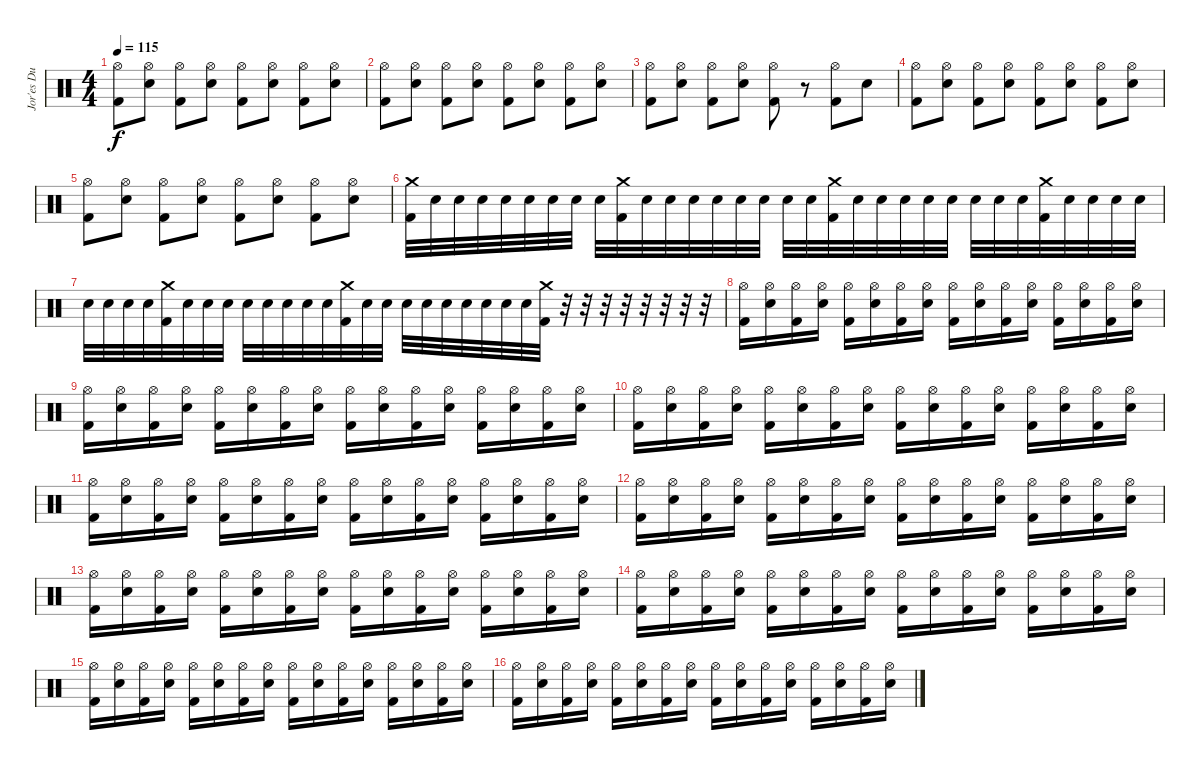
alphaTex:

\track ("Jor'es Du True" "Jor'es Du ") {instrument percussion}
\staff {score}
\articulation defaults
\ts (4 4)
\tempo 115
\clef neutral
\ks c
("Hi-Hat (open)" "Kick (hit) 2").8{dy f} ("Hi-Hat (open)" "Electric Snare (hit)").8 ("Hi-Hat (open)" "Kick (hit) 2").8 ("Hi-Hat (open)" "Electric Snare (hit)").8 ("Hi-Hat (open)" "Kick (hit) 2").8 ("Hi-Hat (open)" "Electric Snare (hit)").8 ("Hi-Hat (open)" "Kick (hit) 2").8 ("Hi-Hat (open)" "Electric Snare (hit)").8 |
("Hi-Hat (open)" "Kick (hit) 2").8 ("Hi-Hat (open)" "Electric Snare (hit)").8 ("Hi-Hat (open)" "Kick (hit) 2").8 ("Hi-Hat (open)" "Electric Snare (hit)").8 ("Hi-Hat (open)" "Kick (hit) 2").8 ("Hi-Hat (open)" "Electric Snare (hit)").8 ("Hi-Hat (open)" "Kick (hit) 2").8 ("Hi-Hat (open)" "Electric Snare (hit)").8 |
("Hi-Hat (open)" "Kick (hit) 2").8 ("Hi-Hat (open)" "Electric Snare (hit)").8 ("Hi-Hat (open)" "Kick (hit) 2").8 ("Hi-Hat (open)" "Electric Snare (hit)").8 ("Hi-Hat (open)" "Kick (hit) 2").8 r.8 ("Hi-Hat (open)" "Kick (hit) 2").8 "Electric Snare (hit)".8 |
("Hi-Hat (open)" "Kick (hit) 2").8 ("Hi-Hat (open)" "Electric Snare (hit)").8 ("Hi-Hat (open)" "Kick (hit) 2").8 ("Hi-Hat (open)" "Electric Snare (hit)").8 ("Hi-Hat (open)" "Kick (hit) 2").8 ("Hi-Hat (open)" "Electric Snare (hit)").8 ("Hi-Hat (open)" "Kick (hit) 2").8 ("Hi-Hat (open)" "Electric Snare (hit)").8 |
("Hi-Hat (open)" "Kick (hit) 2").8 ("Hi-Hat (open)" "Electric Snare (hit)").8 ("Hi-Hat (open)" "Kick (hit) 2").8 ("Hi-Hat (open)" "Electric Snare (hit)").8 ("Hi-Hat (open)" "Kick (hit) 2").8 ("Hi-Hat (open)" "Electric Snare (hit)").8 ("Hi-Hat (open)" "Kick (hit) 2").8 ("Hi-Hat (open)" "Electric Snare (hit)").8 |
("Crash medium (hit)" "Kick (hit) 2").32 "Electric Snare (hit)".32 "Electric Snare (hit)".32 "Electric Snare (hit)".32 "Electric Snare (hit)".32 "Electric Snare (hit)".32 "Electric Snare (hit)".32 "Electric Snare (hit)".32 "Electric Snare (hit)".32 ("Crash medium (hit)" "Kick (hit) 2").32 "Electric Snare (hit)".32 "Electric Snare (hit)".32 "Electric Snare (hit)".32 "Electric Snare (hit)".32 "Electric Snare (hit)".32 "Electric Snare (hit)".32 "Electric Snare (hit)".32 "Electric Snare (hit)".32 ("Crash medium (hit)" "Kick (hit) 2").32 "Electric Snare (hit)".32 "Electric Snare (hit)".32 "Electric Snare (hit)".32 "Electric Snare (hit)".32 "Electric Snare (hit)".32 "Electric Snare (hit)".32 "Electric Snare (hit)".32 "Electric Snare (hit)".32 ("Crash medium (hit)" "Kick (hit) 2").32 "Electric Snare (hit)".32 "Electric Snare (hit)".32 "Electric Snare (hit)".32 "Electric Snare (hit)".32 |
"Electric Snare (hit)".32 "Electric Snare (hit)".32 "Electric Snare (hit)".32 "Electric Snare (hit)".32 ("Crash medium (hit)" "Kick (hit) 2").32 "Electric Snare (hit)".32 "Electric Snare (hit)".32 "Electric Snare (hit)".32 "Electric Snare (hit)".32 "Electric Snare (hit)".32 "Electric Snare (hit)".32 "Electric Snare (hit)".32 "Electric Snare (hit)".32 ("Crash medium (hit)" "Kick (hit) 2").32 "Electric Snare (hit)".32 "Electric Snare (hit)".32 "Electric Snare (hit)".32 "Electric Snare (hit)".32 "Electric Snare (hit)".32 "Electric Snare (hit)".32 "Electric Snare (hit)".32 "Electric Snare (hit)".32 "Electric Snare (hit)".32 ("Crash medium (hit)" "Kick (hit) 2").32 r.32 r.32 r.32 r.32 r.32 r.32 r.32 r.32 |
("Hi-Hat (open)" "Kick (hit) 2").16 ("Hi-Hat (open)" "Electric Snare (hit)").16 ("Hi-Hat (open)" "Kick (hit) 2").16 ("Hi-Hat (open)" "Electric Snare (hit)").16 ("Hi-Hat (open)" "Kick (hit) 2").16 ("Hi-Hat (open)" "Electric Snare (hit)").16 ("Hi-Hat (open)" "Kick (hit) 2").16 ("Hi-Hat (open)" "Electric Snare (hit)").16 ("Hi-Hat (open)" "Kick (hit) 2").16 ("Hi-Hat (open)" "Electric Snare (hit)").16 ("Hi-Hat (open)" "Kick (hit) 2").16 ("Hi-Hat (open)" "Electric Snare (hit)").16 ("Hi-Hat (open)" "Kick (hit) 2").16 ("Hi-Hat (open)" "Electric Snare (hit)").16 ("Hi-Hat (open)" "Kick (hit) 2").16 ("Hi-Hat (open)" "Electric Snare (hit)").16 |
("Hi-Hat (open)" "Kick (hit) 2").16 ("Hi-Hat (open)" "Electric Snare (hit)").16 ("Hi-Hat (open)" "Kick (hit) 2").16 ("Hi-Hat (open)" "Electric Snare (hit)").16 ("Hi-Hat (open)" "Kick (hit) 2").16 ("Hi-Hat (open)" "Electric Snare (hit)").16 ("Hi-Hat (open)" "Kick (hit) 2").16 ("Hi-Hat (open)" "Electric Snare (hit)").16 ("Hi-Hat (open)" "Kick (hit) 2").16 ("Hi-Hat (open)" "Electric Snare (hit)").16 ("Hi-Hat (open)" "Kick (hit) 2").16 ("Hi-Hat (open)" "Electric Snare (hit)").16 ("Hi-Hat (open)" "Kick (hit) 2").16 ("Hi-Hat (open)" "Electric Snare (hit)").16 ("Hi-Hat (open)" "Kick (hit) 2").16 ("Hi-Hat (open)" "Electric Snare (hit)").16 |
("Hi-Hat (open)" "Kick (hit) 2").16 ("Hi-Hat (open)" "Electric Snare (hit)").16 ("Hi-Hat (open)" "Kick (hit) 2").16 ("Hi-Hat (open)" "Electric Snare (hit)").16 ("Hi-Hat (open)" "Kick (hit) 2").16 ("Hi-Hat (open)" "Electric Snare (hit)").16 ("Hi-Hat (open)" "Kick (hit) 2").16 ("Hi-Hat (open)" "Electric Snare (hit)").16 ("Hi-Hat (open)" "Kick (hit) 2").16 ("Hi-Hat (open)" "Electric Snare (hit)").16 ("Hi-Hat (open)" "Kick (hit) 2").16 ("Hi-Hat (open)" "Electric Snare (hit)").16 ("Hi-Hat (open)" "Kick (hit) 2").16 ("Hi-Hat (open)" "Electric Snare (hit)").16 ("Hi-Hat (open)" "Kick (hit) 2").16 ("Hi-Hat (open)" "Electric Snare (hit)").16 |
("Hi-Hat (open)" "Kick (hit) 2").16 ("Hi-Hat (open)" "Electric Snare (hit)").16 ("Hi-Hat (open)" "Kick (hit) 2").16 ("Hi-Hat (open)" "Electric Snare (hit)").16 ("Hi-Hat (open)" "Kick (hit) 2").16 ("Hi-Hat (open)" "Electric Snare (hit)").16 ("Hi-Hat (open)" "Kick (hit) 2").16 ("Hi-Hat (open)" "Electric Snare (hit)").16 ("Hi-Hat (open)" "Kick (hit) 2").16 ("Hi-Hat (open)" "Electric Snare (hit)").16 ("Hi-Hat (open)" "Kick (hit) 2").16 ("Hi-Hat (open)" "Electric Snare (hit)").16 ("Hi-Hat (open)" "Kick (hit) 2").16 ("Hi-Hat (open)" "Electric Snare (hit)").16 ("Hi-Hat (open)" "Kick (hit) 2").16 ("Hi-Hat (open)" "Electric Snare (hit)").16 |
("Hi-Hat (open)" "Kick (hit) 2").16 ("Hi-Hat (open)" "Electric Snare (hit)").16 ("Hi-Hat (open)" "Kick (hit) 2").16 ("Hi-Hat (open)" "Electric Snare (hit)").16 ("Hi-Hat (open)" "Kick (hit) 2").16 ("Hi-Hat (open)" "Electric Snare (hit)").16 ("Hi-Hat (open)" "Kick (hit) 2").16 ("Hi-Hat (open)" "Electric Snare (hit)").16 ("Hi-Hat (open)" "Kick (hit) 2").16 ("Hi-Hat (open)" "Electric Snare (hit)").16 ("Hi-Hat (open)" "Kick (hit) 2").16 ("Hi-Hat (open)" "Electric Snare (hit)").16 ("Hi-Hat (open)" "Kick (hit) 2").16 ("Hi-Hat (open)" "Electric Snare (hit)").16 ("Hi-Hat (open)" "Kick (hit) 2").16 ("Hi-Hat (open)" "Electric Snare (hit)").16 |
("Hi-Hat (open)" "Kick (hit) 2").16 ("Hi-Hat (open)" "Electric Snare (hit)").16 ("Hi-Hat (open)" "Kick (hit) 2").16 ("Hi-Hat (open)" "Electric Snare (hit)").16 ("Hi-Hat (open)" "Kick (hit) 2").16 ("Hi-Hat (open)" "Electric Snare (hit)").16 ("Hi-Hat (open)" "Kick (hit) 2").16 ("Hi-Hat (open)" "Electric Snare (hit)").16 ("Hi-Hat (open)" "Kick (hit) 2").16 ("Hi-Hat (open)" "Electric Snare (hit)").16 ("Hi-Hat (open)" "Kick (hit) 2").16 ("Hi-Hat (open)" "Electric Snare (hit)").16 ("Hi-Hat (open)" "Kick (hit) 2").16 ("Hi-Hat (open)" "Electric Snare (hit)").16 ("Hi-Hat (open)" "Kick (hit) 2").16 ("Hi-Hat (open)" "Electric Snare (hit)").16 |
("Hi-Hat (open)" "Kick (hit) 2").16 ("Hi-Hat (open)" "Electric Snare (hit)").16 ("Hi-Hat (open)" "Kick (hit) 2").16 ("Hi-Hat (open)" "Electric Snare (hit)").16 ("Hi-Hat (open)" "Kick (hit) 2").16 ("Hi-Hat (open)" "Electric Snare (hit)").16 ("Hi-Hat (open)" "Kick (hit) 2").16 ("Hi-Hat (open)" "Electric Snare (hit)").16 ("Hi-Hat (open)" "Kick (hit) 2").16 ("Hi-Hat (open)" "Electric Snare (hit)").16 ("Hi-Hat (open)" "Kick (hit) 2").16 ("Hi-Hat (open)" "Electric Snare (hit)").16 ("Hi-Hat (open)" "Kick (hit) 2").16 ("Hi-Hat (open)" "Electric Snare (hit)").16 ("Hi-Hat (open)" "Kick (hit) 2").16 ("Hi-Hat (open)" "Electric Snare (hit)").16 |
("Hi-Hat (open)" "Kick (hit) 2").16 ("Hi-Hat (open)" "Electric Snare (hit)").16 ("Hi-Hat (open)" "Kick (hit) 2").16 ("Hi-Hat (open)" "Electric Snare (hit)").16 ("Hi-Hat (open)" "Kick (hit) 2").16 ("Hi-Hat (open)" "Electric Snare (hit)").16 ("Hi-Hat (open)" "Kick (hit) 2").16 ("Hi-Hat (open)" "Electric Snare (hit)").16 ("Hi-Hat (open)" "Kick (hit) 2").16 ("Hi-Hat (open)" "Electric Snare (hit)").16 ("Hi-Hat (open)" "Kick (hit) 2").16 ("Hi-Hat (open)" "Electric Snare (hit)").16 ("Hi-Hat (open)" "Kick (hit) 2").16 ("Hi-Hat (open)" "Electric Snare (hit)").16 ("Hi-Hat (open)" "Kick (hit) 2").16 ("Hi-Hat (open)" "Electric Snare (hit)").16 |
("Hi-Hat (open)" "Kick (hit) 2").16 ("Hi-Hat (open)" "Electric Snare (hit)").16 ("Hi-Hat (open)" "Kick (hit) 2").16 ("Hi-Hat (open)" "Electric Snare (hit)").16 ("Hi-Hat (open)" "Kick (hit) 2").16 ("Hi-Hat (open)" "Electric Snare (hit)").16 ("Hi-Hat (open)" "Kick (hit) 2").16 ("Hi-Hat (open)" "Electric Snare (hit)").16 ("Hi-Hat (open)" "Kick (hit) 2").16 ("Hi-Hat (open)" "Electric Snare (hit)").16 ("Hi-Hat (open)" "Kick (hit) 2").16 ("Hi-Hat (open)" "Electric Snare (hit)").16 ("Hi-Hat (open)" "Kick (hit) 2").16 ("Hi-Hat (open)" "Electric Snare (hit)").16 ("Hi-Hat (open)" "Kick (hit) 2").16 ("Hi-Hat (open)" "Electric Snare (hit)").16
